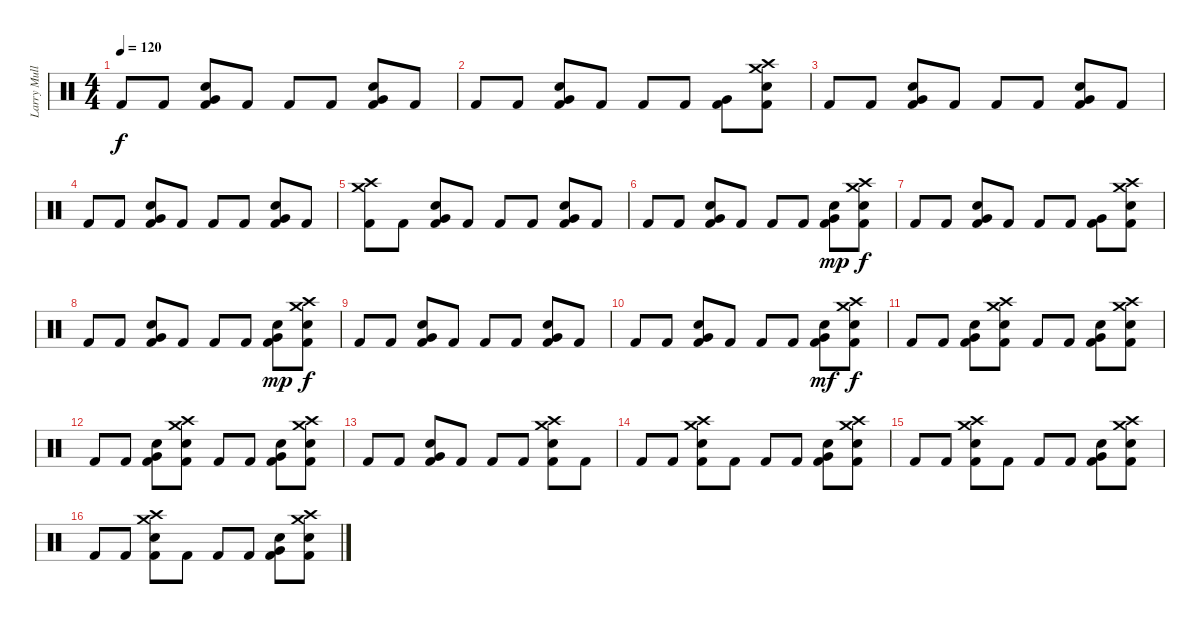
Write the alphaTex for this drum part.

\track ("Larry Mullen jr." "Larry Mull") {instrument percussion}
\staff {score}
\articulation defaults
\ts (4 4)
\tempo 120
\clef neutral
\ks c "Kick (hit) 2".8{dy f} "Kick (hit) 2".8
("Kick (hit) 2" "Electric Snare (hit)" "Very Low Tom (hit)").8 "Kick (hit) 2".8 "Kick (hit) 2".8 "Kick (hit) 2".8 ("Kick (hit) 2" "Electric Snare (hit)" "Very Low Tom (hit)").8 "Kick (hit) 2".8 |
"Kick (hit) 2".8 "Kick (hit) 2".8 ("Kick (hit) 2" "Electric Snare (hit)" "Very Low Tom (hit)").8 "Kick (hit) 2".8 "Kick (hit) 2".8 "Kick (hit) 2".8 ("Kick (hit) 2" "Very Low Tom (hit)").8 ("Kick (hit) 2" "Electric Snare (hit)" "Crash high (hit)" "Crash medium (hit)").8 |
"Kick (hit) 2".8 "Kick (hit) 2".8 ("Kick (hit) 2" "Electric Snare (hit)" "Very Low Tom (hit)").8 "Kick (hit) 2".8 "Kick (hit) 2".8 "Kick (hit) 2".8 ("Kick (hit) 2" "Electric Snare (hit)" "Very Low Tom (hit)").8 "Kick (hit) 2".8 |
"Kick (hit) 2".8 "Kick (hit) 2".8 ("Kick (hit) 2" "Electric Snare (hit)" "Very Low Tom (hit)").8 "Kick (hit) 2".8 "Kick (hit) 2".8 "Kick (hit) 2".8 ("Kick (hit) 2" "Electric Snare (hit)" "Very Low Tom (hit)").8 "Kick (hit) 2".8 |
("Kick (hit) 2" "Crash high (hit)" "Crash medium (hit)").8 "Kick (hit) 2".8 ("Kick (hit) 2" "Electric Snare (hit)" "Very Low Tom (hit)").8 "Kick (hit) 2".8 "Kick (hit) 2".8 "Kick (hit) 2".8 ("Kick (hit) 2" "Electric Snare (hit)" "Very Low Tom (hit)").8 "Kick (hit) 2".8 |
"Kick (hit) 2".8 "Kick (hit) 2".8 ("Kick (hit) 2" "Electric Snare (hit)" "Very Low Tom (hit)").8 "Kick (hit) 2".8 "Kick (hit) 2".8 "Kick (hit) 2".8 ("Kick (hit) 2" "Electric Snare (hit)" "Very Low Tom (hit)").8{dy mp} ("Kick (hit) 2" "Electric Snare (hit)" "Crash high (hit)" "Crash medium (hit)").8{dy f} |
"Kick (hit) 2".8 "Kick (hit) 2".8 ("Kick (hit) 2" "Electric Snare (hit)" "Very Low Tom (hit)").8 "Kick (hit) 2".8 "Kick (hit) 2".8 "Kick (hit) 2".8 ("Kick (hit) 2" "Very Low Tom (hit)").8 ("Kick (hit) 2" "Electric Snare (hit)" "Crash high (hit)" "Crash medium (hit)").8 |
"Kick (hit) 2".8 "Kick (hit) 2".8 ("Kick (hit) 2" "Electric Snare (hit)" "Very Low Tom (hit)").8 "Kick (hit) 2".8 "Kick (hit) 2".8 "Kick (hit) 2".8 ("Kick (hit) 2" "Electric Snare (hit)" "Very Low Tom (hit)").8{dy mp} ("Kick (hit) 2" "Electric Snare (hit)" "Crash high (hit)" "Crash medium (hit)").8{dy f} |
"Kick (hit) 2".8 "Kick (hit) 2".8 ("Kick (hit) 2" "Electric Snare (hit)" "Very Low Tom (hit)").8 "Kick (hit) 2".8 "Kick (hit) 2".8 "Kick (hit) 2".8 ("Kick (hit) 2" "Electric Snare (hit)" "Very Low Tom (hit)").8 "Kick (hit) 2".8 |
"Kick (hit) 2".8 "Kick (hit) 2".8 ("Kick (hit) 2" "Electric Snare (hit)" "Very Low Tom (hit)").8 "Kick (hit) 2".8 "Kick (hit) 2".8 "Kick (hit) 2".8 ("Kick (hit) 2" "Electric Snare (hit)" "Very Low Tom (hit)").8{dy mf} ("Kick (hit) 2" "Electric Snare (hit)" "Crash high (hit)" "Crash medium (hit)").8{dy f} |
"Kick (hit) 2".8 "Kick (hit) 2".8 ("Kick (hit) 2" "Electric Snare (hit)" "Very Low Tom (hit)").8 ("Kick (hit) 2" "Electric Snare (hit)" "Crash high (hit)" "Crash medium (hit)").8 "Kick (hit) 2".8 "Kick (hit) 2".8 ("Kick (hit) 2" "Electric Snare (hit)" "Very Low Tom (hit)").8 ("Kick (hit) 2" "Electric Snare (hit)" "Crash high (hit)" "Crash medium (hit)").8 |
"Kick (hit) 2".8 "Kick (hit) 2".8 ("Kick (hit) 2" "Electric Snare (hit)" "Very Low Tom (hit)").8 ("Kick (hit) 2" "Electric Snare (hit)" "Crash high (hit)" "Crash medium (hit)").8 "Kick (hit) 2".8 "Kick (hit) 2".8 ("Kick (hit) 2" "Electric Snare (hit)" "Very Low Tom (hit)").8 ("Kick (hit) 2" "Electric Snare (hit)" "Crash high (hit)" "Crash medium (hit)").8 |
"Kick (hit) 2".8 "Kick (hit) 2".8 ("Kick (hit) 2" "Electric Snare (hit)" "Very Low Tom (hit)").8 "Kick (hit) 2".8 "Kick (hit) 2".8 "Kick (hit) 2".8 ("Kick (hit) 2" "Electric Snare (hit)" "Crash high (hit)" "Crash medium (hit)").8 "Kick (hit) 2".8 |
"Kick (hit) 2".8 "Kick (hit) 2".8 ("Kick (hit) 2" "Electric Snare (hit)" "Crash high (hit)" "Crash medium (hit)").8 "Kick (hit) 2".8 "Kick (hit) 2".8 "Kick (hit) 2".8 ("Kick (hit) 2" "Electric Snare (hit)" "Very Low Tom (hit)").8 ("Kick (hit) 2" "Electric Snare (hit)" "Crash high (hit)" "Crash medium (hit)").8 |
"Kick (hit) 2".8 "Kick (hit) 2".8 ("Kick (hit) 2" "Electric Snare (hit)" "Crash high (hit)" "Crash medium (hit)").8 "Kick (hit) 2".8 "Kick (hit) 2".8 "Kick (hit) 2".8 ("Kick (hit) 2" "Electric Snare (hit)" "Very Low Tom (hit)").8 ("Kick (hit) 2" "Electric Snare (hit)" "Crash high (hit)" "Crash medium (hit)").8 |
"Kick (hit) 2".8 "Kick (hit) 2".8 ("Kick (hit) 2" "Electric Snare (hit)" "Crash high (hit)" "Crash medium (hit)").8 "Kick (hit) 2".8 "Kick (hit) 2".8 "Kick (hit) 2".8 ("Kick (hit) 2" "Electric Snare (hit)" "Very Low Tom (hit)").8 ("Kick (hit) 2" "Electric Snare (hit)" "Crash high (hit)" "Crash medium (hit)").8
